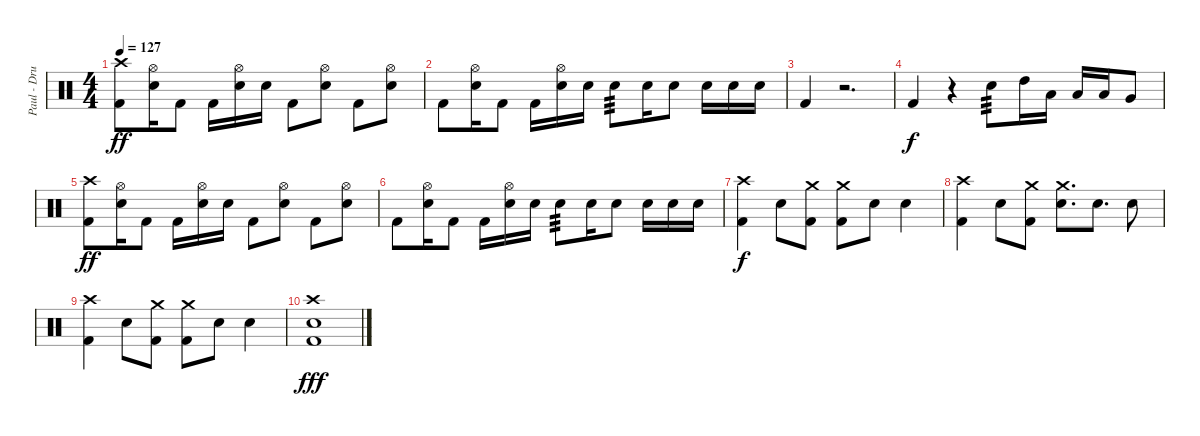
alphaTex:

\track ("Paul - Drums" "Paul - Dru") {instrument percussion}
\staff {score}
\articulation defaults
\ts (4 4)
\tempo 127
\clef neutral
\ks c
("Crash high (hit)" "Kick (hit) 2").8{dy ff} ("Hi-Hat (open)" "Electric Snare (hit)").16 "Kick (hit) 2".8 "Kick (hit) 2".16 ("Hi-Hat (open)" "Electric Snare (hit)").16 "Electric Snare (hit)".16 "Kick (hit) 2".8 ("Hi-Hat (open)" "Electric Snare (hit)").8 "Kick (hit) 2".8 ("Hi-Hat (open)" "Electric Snare (hit)").8 |
"Kick (hit) 2".8 ("Hi-Hat (open)" "Electric Snare (hit)").16 "Kick (hit) 2".8 "Kick (hit) 2".16 ("Hi-Hat (open)" "Electric Snare (hit)").16 "Electric Snare (hit)".16 "Electric Snare (hit)".8{tp 3} "Electric Snare (hit)".16 "Electric Snare (hit)".8 "Electric Snare (hit)".16 "Electric Snare (hit)".16 "Electric Snare (hit)".16 |
"Kick (hit) 2".4 r.2{d} |
"Kick (hit) 2".4{dy f} r.4 "Electric Snare (hit)".8{tp 3} "High Tom (hit)".16 "Low Tom (hit)".16 "Low Tom (hit)".16 "Low Tom (hit)".16 "Very Low Tom (hit)".8 |
("Crash high (hit)" "Kick (hit) 2").8{dy ff} ("Hi-Hat (open)" "Electric Snare (hit)").16 "Kick (hit) 2".8 "Kick (hit) 2".16 ("Hi-Hat (open)" "Electric Snare (hit)").16 "Electric Snare (hit)".16 "Kick (hit) 2".8 ("Hi-Hat (open)" "Electric Snare (hit)").8 "Kick (hit) 2".8 ("Hi-Hat (open)" "Electric Snare (hit)").8 |
"Kick (hit) 2".8 ("Hi-Hat (open)" "Electric Snare (hit)").16 "Kick (hit) 2".8 "Kick (hit) 2".16 ("Hi-Hat (open)" "Electric Snare (hit)").16 "Electric Snare (hit)".16 "Electric Snare (hit)".8{tp 3} "Electric Snare (hit)".16 "Electric Snare (hit)".8 "Electric Snare (hit)".16 "Electric Snare (hit)".16 "Electric Snare (hit)".16 |
("Crash high (hit)" "Kick (hit) 2").4{dy f} "Electric Snare (hit)".8 ("Crash medium (hit)" "Kick (hit) 2").8 ("Crash medium (hit)" "Kick (hit) 2").8 "Electric Snare (hit)".8 "Electric Snare (hit)".4 |
("Crash high (hit)" "Kick (hit) 2").4 "Electric Snare (hit)".8 ("Crash medium (hit)" "Kick (hit) 2").8 ("Crash medium (hit)" "Electric Snare (hit)").8{d} "Electric Snare (hit)".8{d} "Electric Snare (hit)".8 |
("Crash high (hit)" "Kick (hit) 2").4 "Electric Snare (hit)".8 ("Crash medium (hit)" "Kick (hit) 2").8 ("Crash medium (hit)" "Kick (hit) 2").8 "Electric Snare (hit)".8 "Electric Snare (hit)".4 |
("Crash high (hit)" "Electric Snare (hit)" "Kick (hit) 2").1{dy fff}
